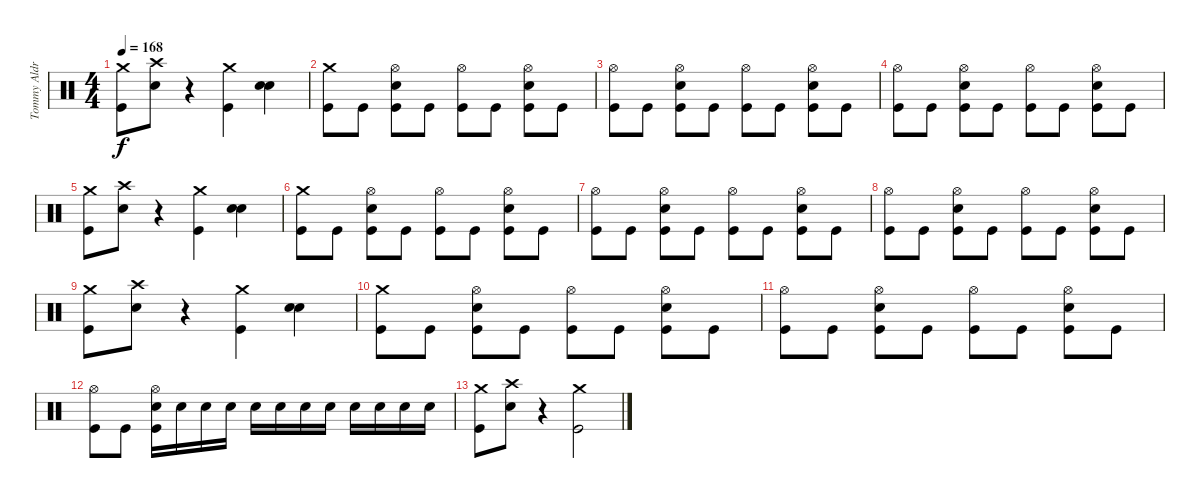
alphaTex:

\track ("Tommy Aldrige" "Tommy Aldr") {instrument percussion}
\staff {score}
\articulation defaults
\ts (4 4)
\tempo 168
\clef neutral
\ks c
("Crash medium (hit)" "Kick (hit)").8{dy f} ("Crash high (hit)" "Snare (hit) 2").8 r.4 ("Crash medium (hit)" "Kick (hit)").4 ("Snare (hit) 2" "Snare (hit) 2").4{bd 240} |
("Crash medium (hit)" "Kick (hit)").8 "Kick (hit)".8 ("Hi-Hat (open)" "Snare (hit) 2" "Kick (hit)").8 "Kick (hit)".8 ("Hi-Hat (open)" "Kick (hit)").8 "Kick (hit)".8 ("Hi-Hat (open)" "Snare (hit) 2" "Kick (hit)").8 "Kick (hit)".8 |
("Hi-Hat (open)" "Kick (hit)").8 "Kick (hit)".8 ("Hi-Hat (open)" "Snare (hit) 2" "Kick (hit)").8 "Kick (hit)".8 ("Hi-Hat (open)" "Kick (hit)").8 "Kick (hit)".8 ("Hi-Hat (open)" "Snare (hit) 2" "Kick (hit)").8 "Kick (hit)".8 |
("Hi-Hat (open)" "Kick (hit)").8 "Kick (hit)".8 ("Hi-Hat (open)" "Snare (hit) 2" "Kick (hit)").8 "Kick (hit)".8 ("Hi-Hat (open)" "Kick (hit)").8 "Kick (hit)".8 ("Hi-Hat (open)" "Snare (hit) 2" "Kick (hit)").8 "Kick (hit)".8 |
("Crash medium (hit)" "Kick (hit)").8 ("Crash high (hit)" "Snare (hit) 2").8 r.4 ("Crash medium (hit)" "Kick (hit)").4 ("Snare (hit) 2" "Snare (hit) 2").4{bd 240} |
("Crash medium (hit)" "Kick (hit)").8 "Kick (hit)".8 ("Hi-Hat (open)" "Snare (hit) 2" "Kick (hit)").8 "Kick (hit)".8 ("Hi-Hat (open)" "Kick (hit)").8 "Kick (hit)".8 ("Hi-Hat (open)" "Snare (hit) 2" "Kick (hit)").8 "Kick (hit)".8 |
("Hi-Hat (open)" "Kick (hit)").8 "Kick (hit)".8 ("Hi-Hat (open)" "Snare (hit) 2" "Kick (hit)").8 "Kick (hit)".8 ("Hi-Hat (open)" "Kick (hit)").8 "Kick (hit)".8 ("Hi-Hat (open)" "Snare (hit) 2" "Kick (hit)").8 "Kick (hit)".8 |
("Hi-Hat (open)" "Kick (hit)").8 "Kick (hit)".8 ("Hi-Hat (open)" "Snare (hit) 2" "Kick (hit)").8 "Kick (hit)".8 ("Hi-Hat (open)" "Kick (hit)").8 "Kick (hit)".8 ("Hi-Hat (open)" "Snare (hit) 2" "Kick (hit)").8 "Kick (hit)".8 |
("Crash medium (hit)" "Kick (hit)").8 ("Crash high (hit)" "Snare (hit) 2").8 r.4 ("Crash medium (hit)" "Kick (hit)").4 ("Snare (hit) 2" "Snare (hit) 2").4{bd 120} |
("Crash medium (hit)" "Kick (hit)").8 "Kick (hit)".8 ("Hi-Hat (open)" "Snare (hit) 2" "Kick (hit)").8 "Kick (hit)".8 ("Hi-Hat (open)" "Kick (hit)").8 "Kick (hit)".8 ("Hi-Hat (open)" "Snare (hit) 2" "Kick (hit)").8 "Kick (hit)".8 |
("Hi-Hat (open)" "Kick (hit)").8 "Kick (hit)".8 ("Hi-Hat (open)" "Snare (hit) 2" "Kick (hit)").8 "Kick (hit)".8 ("Hi-Hat (open)" "Kick (hit)").8 "Kick (hit)".8 ("Hi-Hat (open)" "Snare (hit) 2" "Kick (hit)").8 "Kick (hit)".8 |
("Hi-Hat (open)" "Kick (hit)").8 "Kick (hit)".8 ("Hi-Hat (open)" "Snare (hit) 2" "Kick (hit)").16 "Snare (hit) 2".16 "Snare (hit) 2".16 "Snare (hit) 2".16 "Snare (hit) 2".16 "Snare (hit) 2".16 "Snare (hit) 2".16 "Snare (hit) 2".16 "Snare (hit) 2".16 "Snare (hit) 2".16 "Snare (hit) 2".16 "Snare (hit) 2".16 |
("Crash medium (hit)" "Kick (hit)").8 ("Crash high (hit)" "Snare (hit) 2").8 r.4 ("Crash medium (hit)" "Kick (hit)").2
